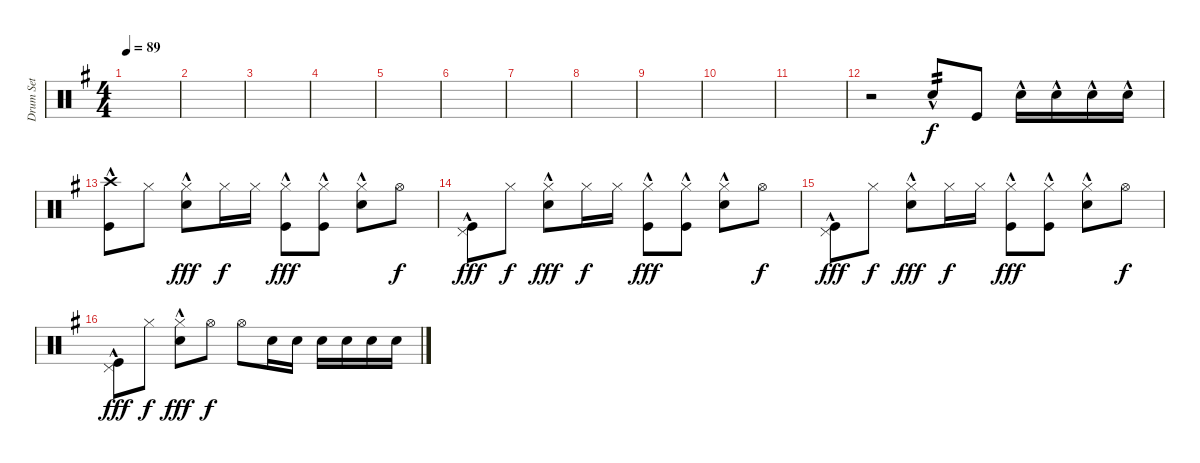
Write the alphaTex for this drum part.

\track ("Drum Set" "Drum Set") {instrument percussion}
\staff {score}
\articulation defaults
\ts (4 4)
\tempo 89
\clef neutral
\ks g
|
|
|
|
|
|
|
|
|
|
|
r.2 "Snare (hit) 2"{hac}.8{tp 2} "Kick (hit)".8 "Snare (hit) 2"{hac}.16 "Snare (hit) 2"{hac}.16 "Snare (hit) 2"{hac}.16 "Snare (hit) 2"{hac}.16 |
("Crash high (hit)" "Kick (hit)"{hac}).8 "Hi-Hat (closed)".8{dy f} ("Hi-Hat (closed)" "Snare (hit) 2"{hac}).8{dy fff} "Hi-Hat (closed)".16{dy f} "Hi-Hat (closed)".16 ("Hi-Hat (closed)" "Kick (hit)"{hac}).8{dy fff} ("Hi-Hat (closed)" "Kick (hit)"{hac}).8 ("Hi-Hat (closed)" "Snare (hit) 2"{hac}).8 "Hi-Hat (open)".8{dy f} |
("Pedal Hi-Hat (hit)" "Kick (hit)"{hac}).8{dy fff} "Hi-Hat (closed)".8{dy f} ("Hi-Hat (closed)" "Snare (hit) 2"{hac}).8{dy fff} "Hi-Hat (closed)".16{dy f} "Hi-Hat (closed)".16 ("Hi-Hat (closed)" "Kick (hit)"{hac}).8{dy fff} ("Hi-Hat (closed)" "Kick (hit)"{hac}).8 ("Hi-Hat (closed)" "Snare (hit) 2"{hac}).8 "Hi-Hat (open)".8{dy f} |
("Pedal Hi-Hat (hit)" "Kick (hit)"{hac}).8{dy fff} "Hi-Hat (closed)".8{dy f} ("Hi-Hat (closed)" "Snare (hit) 2"{hac}).8{dy fff} "Hi-Hat (closed)".16{dy f} "Hi-Hat (closed)".16 ("Hi-Hat (closed)" "Kick (hit)"{hac}).8{dy fff} ("Hi-Hat (closed)" "Kick (hit)"{hac}).8 ("Hi-Hat (closed)" "Snare (hit) 2"{hac}).8 "Hi-Hat (open)".8{dy f} |
("Pedal Hi-Hat (hit)" "Kick (hit)"{hac}).8{dy fff} "Hi-Hat (closed)".8{dy f} ("Hi-Hat (closed)" "Snare (hit) 2"{hac}).8{dy fff} "Hi-Hat (open)".8{dy f} "Hi-Hat (open)".8 "Snare (hit) 2".16 "Snare (hit) 2".16 "Snare (hit) 2".16 "Snare (hit) 2".16 "Snare (hit) 2".16 "Snare (hit) 2".16
